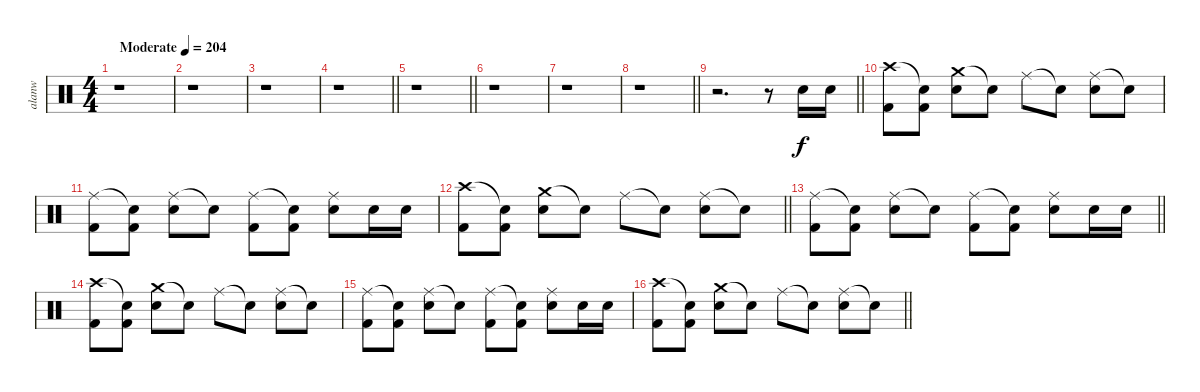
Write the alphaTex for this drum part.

\track ("alanw" "alanw") {instrument percussion}
\staff {score}
\articulation defaults
\ts (4 4)
\tempo (204 "Moderate")
\clef neutral
\ks c
r.1{dy f} |
r.1 |
r.1 |
\barLineRight lightlight
r.1 |
\barLineRight lightlight
r.1 |
r.1 |
r.1 |
\barLineRight lightlight
r.1 |
\section ("" "")
\barLineRight lightlight
r.2{d} r.8 "Electric Snare (hit)".16 "Electric Snare (hit)".16 |
("Crash high (hit)" "Kick (hit) 2").8 ("Snare (hit)"{t} "Kick (hit) 2").8 ("Crash medium (hit)" "Electric Snare (hit)").8 "Snare (hit)"{t}.8 "Ride (middle)".8 "Snare (hit)"{t}.8 ("Ride (middle)" "Electric Snare (hit)").8 "Snare (hit)"{t}.8 |
("Ride (middle)" "Kick (hit) 2").8 ("Snare (hit)"{t} "Kick (hit) 2").8 ("Ride (middle)" "Electric Snare (hit)").8 "Snare (hit)"{t}.8 ("Ride (middle)" "Kick (hit) 2").8 ("Snare (hit)"{t} "Kick (hit) 2").8 ("Ride (middle)" "Electric Snare (hit)").8 "Electric Snare (hit)".16 "Electric Snare (hit)".16 |
\barLineRight lightlight
("Crash high (hit)" "Kick (hit) 2").8 ("Snare (hit)"{t} "Kick (hit) 2").8 ("Crash medium (hit)" "Electric Snare (hit)").8 "Snare (hit)"{t}.8 "Ride (middle)".8 "Snare (hit)"{t}.8 ("Ride (middle)" "Electric Snare (hit)").8 "Snare (hit)"{t}.8 |
\barLineRight lightlight
("Ride (middle)" "Kick (hit) 2").8 ("Snare (hit)"{t} "Kick (hit) 2").8 ("Ride (middle)" "Electric Snare (hit)").8 "Snare (hit)"{t}.8 ("Ride (middle)" "Kick (hit) 2").8 ("Snare (hit)"{t} "Kick (hit) 2").8 ("Ride (middle)" "Electric Snare (hit)").8 "Electric Snare (hit)".16 "Electric Snare (hit)".16 |
("Crash high (hit)" "Kick (hit) 2").8 ("Snare (hit)"{t} "Kick (hit) 2").8 ("Crash medium (hit)" "Electric Snare (hit)").8 "Snare (hit)"{t}.8 "Ride (middle)".8 "Snare (hit)"{t}.8 ("Ride (middle)" "Electric Snare (hit)").8 "Snare (hit)"{t}.8 |
("Ride (middle)" "Kick (hit) 2").8 ("Snare (hit)"{t} "Kick (hit) 2").8 ("Ride (middle)" "Electric Snare (hit)").8 "Snare (hit)"{t}.8 ("Ride (middle)" "Kick (hit) 2").8 ("Snare (hit)"{t} "Kick (hit) 2").8 ("Ride (middle)" "Electric Snare (hit)").8 "Electric Snare (hit)".16 "Electric Snare (hit)".16 |
\barLineRight lightlight
("Crash high (hit)" "Kick (hit) 2").8 ("Snare (hit)"{t} "Kick (hit) 2").8 ("Crash medium (hit)" "Electric Snare (hit)").8 "Snare (hit)"{t}.8 "Ride (middle)".8 "Snare (hit)"{t}.8 ("Ride (middle)" "Electric Snare (hit)").8 "Snare (hit)"{t}.8
